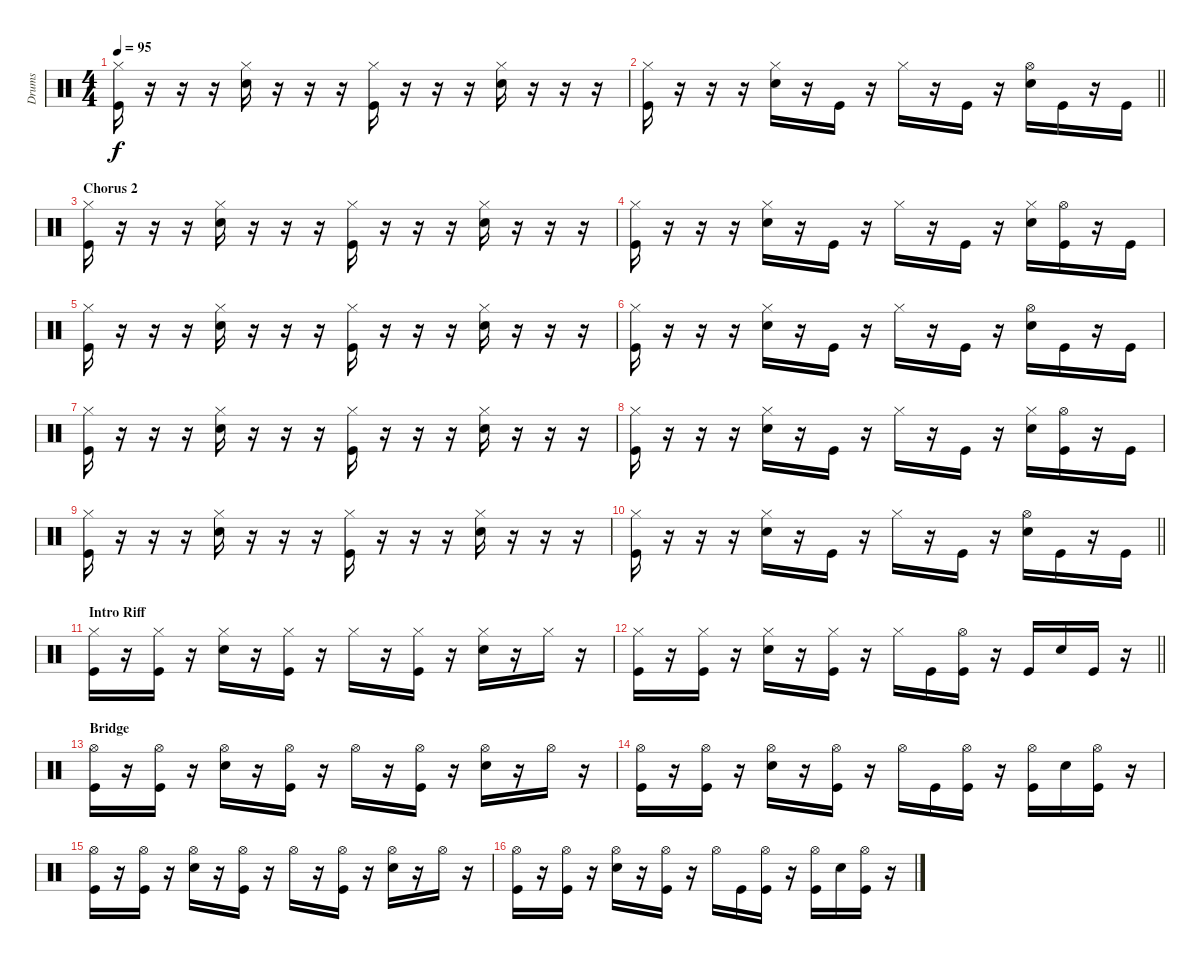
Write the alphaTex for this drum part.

\track ("Drums" "Drums") {instrument percussion bank 177}
\staff {score}
\articulation defaults
\ts (4 4)
\tempo 95
\clef neutral
\ks c
("Hi-Hat (closed)" "Kick (hit)").16{dy f} r.16 r.16 r.16 ("Hi-Hat (closed)" "Snare (hit) 2").16 r.16 r.16 r.16 ("Hi-Hat (closed)" "Kick (hit)").16 r.16 r.16 r.16 ("Hi-Hat (closed)" "Snare (hit) 2").16 r.16 r.16 r.16 |
\barLineRight lightlight
("Hi-Hat (closed)" "Kick (hit)").16 r.16 r.16 r.16 ("Hi-Hat (closed)" "Snare (hit) 2").16 r.16 "Kick (hit)".16 r.16 "Hi-Hat (closed)".16 r.16 "Kick (hit)".16 r.16 ("Hi-Hat (open)" "Snare (hit) 2").16 "Kick (hit)".16 r.16 "Kick (hit)".16 |
\section ("" "Chorus 2")
("Hi-Hat (closed)" "Kick (hit)").16 r.16 r.16 r.16 ("Hi-Hat (closed)" "Snare (hit) 2").16 r.16 r.16 r.16 ("Hi-Hat (closed)" "Kick (hit)").16 r.16 r.16 r.16 ("Hi-Hat (closed)" "Snare (hit) 2").16 r.16 r.16 r.16 |
("Hi-Hat (closed)" "Kick (hit)").16 r.16 r.16 r.16 ("Hi-Hat (closed)" "Snare (hit) 2").16 r.16 "Kick (hit)".16 r.16 "Hi-Hat (closed)".16 r.16 "Kick (hit)".16 r.16 ("Hi-Hat (closed)" "Snare (hit) 2").16 ("Hi-Hat (open)" "Kick (hit)").16 r.16 "Kick (hit)".16 |
("Hi-Hat (closed)" "Kick (hit)").16 r.16 r.16 r.16 ("Hi-Hat (closed)" "Snare (hit) 2").16 r.16 r.16 r.16 ("Hi-Hat (closed)" "Kick (hit)").16 r.16 r.16 r.16 ("Hi-Hat (closed)" "Snare (hit) 2").16 r.16 r.16 r.16 |
("Hi-Hat (closed)" "Kick (hit)").16 r.16 r.16 r.16 ("Hi-Hat (closed)" "Snare (hit) 2").16 r.16 "Kick (hit)".16 r.16 "Hi-Hat (closed)".16 r.16 "Kick (hit)".16 r.16 ("Hi-Hat (open)" "Snare (hit) 2").16 "Kick (hit)".16 r.16 "Kick (hit)".16 |
("Hi-Hat (closed)" "Kick (hit)").16 r.16 r.16 r.16 ("Hi-Hat (closed)" "Snare (hit) 2").16 r.16 r.16 r.16 ("Hi-Hat (closed)" "Kick (hit)").16 r.16 r.16 r.16 ("Hi-Hat (closed)" "Snare (hit) 2").16 r.16 r.16 r.16 |
("Hi-Hat (closed)" "Kick (hit)").16 r.16 r.16 r.16 ("Hi-Hat (closed)" "Snare (hit) 2").16 r.16 "Kick (hit)".16 r.16 "Hi-Hat (closed)".16 r.16 "Kick (hit)".16 r.16 ("Hi-Hat (closed)" "Snare (hit) 2").16 ("Hi-Hat (open)" "Kick (hit)").16 r.16 "Kick (hit)".16 |
("Hi-Hat (closed)" "Kick (hit)").16 r.16 r.16 r.16 ("Hi-Hat (closed)" "Snare (hit) 2").16 r.16 r.16 r.16 ("Hi-Hat (closed)" "Kick (hit)").16 r.16 r.16 r.16 ("Hi-Hat (closed)" "Snare (hit) 2").16 r.16 r.16 r.16 |
\barLineRight lightlight
("Hi-Hat (closed)" "Kick (hit)").16 r.16 r.16 r.16 ("Hi-Hat (closed)" "Snare (hit) 2").16 r.16 "Kick (hit)".16 r.16 "Hi-Hat (closed)".16 r.16 "Kick (hit)".16 r.16 ("Hi-Hat (open)" "Snare (hit) 2").16 "Kick (hit)".16 r.16 "Kick (hit)".16 |
\section ("" "Intro Riff")
("Hi-Hat (closed)" "Kick (hit)").16 r.16 ("Hi-Hat (closed)" "Kick (hit)").16 r.16 ("Hi-Hat (closed)" "Snare (hit) 2").16 r.16 ("Hi-Hat (closed)" "Kick (hit)").16 r.16 "Hi-Hat (closed)".16 r.16 ("Hi-Hat (closed)" "Kick (hit)").16 r.16 ("Hi-Hat (closed)" "Snare (hit) 2").16 r.16 "Hi-Hat (closed)".16 r.16 |
\barLineRight lightlight
("Hi-Hat (closed)" "Kick (hit)").16 r.16 ("Hi-Hat (closed)" "Kick (hit)").16 r.16 ("Hi-Hat (closed)" "Snare (hit) 2").16 r.16 ("Hi-Hat (closed)" "Kick (hit)").16 r.16 "Hi-Hat (closed)".16 "Kick (hit)".16 ("Hi-Hat (open)" "Kick (hit)").16 r.16 "Kick (hit)".16 "Snare (hit) 2".16 "Kick (hit)".16 r.16 |
\section ("" "Bridge")
("Hi-Hat (open)" "Kick (hit)").16 r.16 ("Hi-Hat (open)" "Kick (hit)").16 r.16 ("Hi-Hat (open)" "Snare (hit) 2").16 r.16 ("Hi-Hat (open)" "Kick (hit)").16 r.16 "Hi-Hat (open)".16 r.16 ("Hi-Hat (open)" "Kick (hit)").16 r.16 ("Hi-Hat (open)" "Snare (hit) 2").16 r.16 "Hi-Hat (open)".16 r.16 |
("Hi-Hat (open)" "Kick (hit)").16 r.16 ("Hi-Hat (open)" "Kick (hit)").16 r.16 ("Hi-Hat (open)" "Snare (hit) 2").16 r.16 ("Hi-Hat (open)" "Kick (hit)").16 r.16 "Hi-Hat (open)".16 "Kick (hit)".16 ("Hi-Hat (open)" "Kick (hit)").16 r.16 ("Hi-Hat (open)" "Kick (hit)").16 "Snare (hit) 2".16 ("Hi-Hat (open)" "Kick (hit)").16 r.16 |
("Hi-Hat (open)" "Kick (hit)").16 r.16 ("Hi-Hat (open)" "Kick (hit)").16 r.16 ("Hi-Hat (open)" "Snare (hit) 2").16 r.16 ("Hi-Hat (open)" "Kick (hit)").16 r.16 "Hi-Hat (open)".16 r.16 ("Hi-Hat (open)" "Kick (hit)").16 r.16 ("Hi-Hat (open)" "Snare (hit) 2").16 r.16 "Hi-Hat (open)".16 r.16 |
("Hi-Hat (open)" "Kick (hit)").16 r.16 ("Hi-Hat (open)" "Kick (hit)").16 r.16 ("Hi-Hat (open)" "Snare (hit) 2").16 r.16 ("Hi-Hat (open)" "Kick (hit)").16 r.16 "Hi-Hat (open)".16 "Kick (hit)".16 ("Hi-Hat (open)" "Kick (hit)").16 r.16 ("Hi-Hat (open)" "Kick (hit)").16 "Snare (hit) 2".16 ("Hi-Hat (open)" "Kick (hit)").16 r.16
